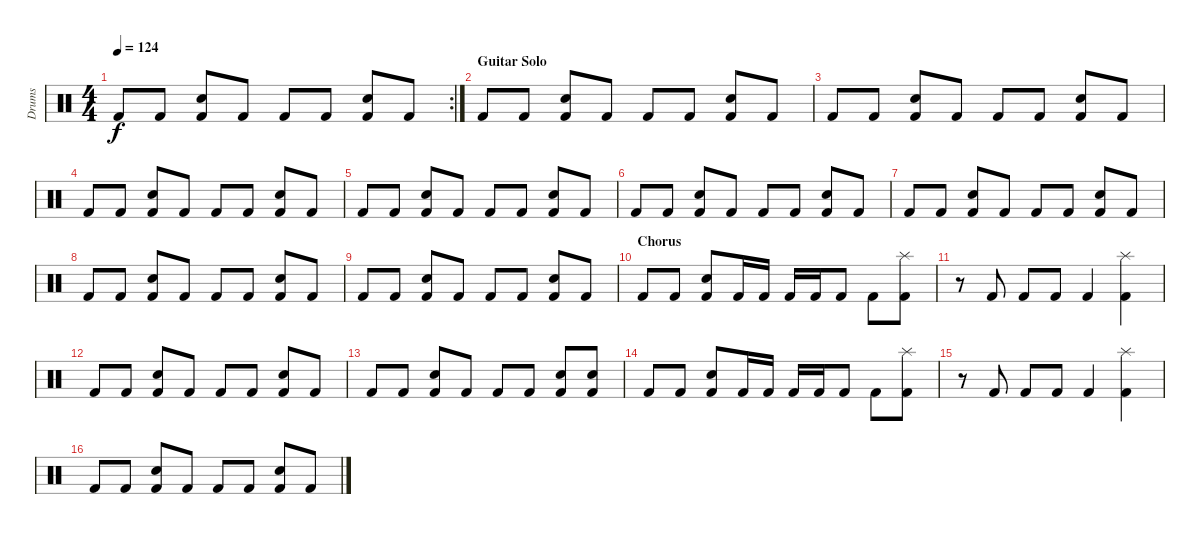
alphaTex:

\track ("Drums" "Drums") {instrument percussion}
\staff {score}
\articulation defaults
\rc 2
\ts (4 4)
\tempo 124
\clef neutral
\ks c "Kick (hit) 2".8{dy f} "Kick (hit) 2".8
("Kick (hit) 2" "Electric Snare (hit)").8 "Kick (hit) 2".8 "Kick (hit) 2".8 "Kick (hit) 2".8 ("Kick (hit) 2" "Electric Snare (hit)").8 "Kick (hit) 2".8 |
\section ("" "Guitar Solo")
"Kick (hit) 2".8 "Kick (hit) 2".8 ("Kick (hit) 2" "Electric Snare (hit)").8 "Kick (hit) 2".8 "Kick (hit) 2".8 "Kick (hit) 2".8 ("Kick (hit) 2" "Electric Snare (hit)").8 "Kick (hit) 2".8 |
"Kick (hit) 2".8 "Kick (hit) 2".8 ("Kick (hit) 2" "Electric Snare (hit)").8 "Kick (hit) 2".8 "Kick (hit) 2".8 "Kick (hit) 2".8 ("Kick (hit) 2" "Electric Snare (hit)").8 "Kick (hit) 2".8 |
"Kick (hit) 2".8 "Kick (hit) 2".8 ("Kick (hit) 2" "Electric Snare (hit)").8 "Kick (hit) 2".8 "Kick (hit) 2".8 "Kick (hit) 2".8 ("Kick (hit) 2" "Electric Snare (hit)").8 "Kick (hit) 2".8 |
"Kick (hit) 2".8 "Kick (hit) 2".8 ("Kick (hit) 2" "Electric Snare (hit)").8 "Kick (hit) 2".8 "Kick (hit) 2".8 "Kick (hit) 2".8 ("Kick (hit) 2" "Electric Snare (hit)").8 "Kick (hit) 2".8 |
"Kick (hit) 2".8 "Kick (hit) 2".8 ("Kick (hit) 2" "Electric Snare (hit)").8 "Kick (hit) 2".8 "Kick (hit) 2".8 "Kick (hit) 2".8 ("Kick (hit) 2" "Electric Snare (hit)").8 "Kick (hit) 2".8 |
"Kick (hit) 2".8 "Kick (hit) 2".8 ("Kick (hit) 2" "Electric Snare (hit)").8 "Kick (hit) 2".8 "Kick (hit) 2".8 "Kick (hit) 2".8 ("Kick (hit) 2" "Electric Snare (hit)").8 "Kick (hit) 2".8 |
"Kick (hit) 2".8 "Kick (hit) 2".8 ("Kick (hit) 2" "Electric Snare (hit)").8 "Kick (hit) 2".8 "Kick (hit) 2".8 "Kick (hit) 2".8 ("Kick (hit) 2" "Electric Snare (hit)").8 "Kick (hit) 2".8 |
"Kick (hit) 2".8 "Kick (hit) 2".8 ("Kick (hit) 2" "Electric Snare (hit)").8 "Kick (hit) 2".8 "Kick (hit) 2".8 "Kick (hit) 2".8 ("Kick (hit) 2" "Electric Snare (hit)").8 "Kick (hit) 2".8 |
\section ("" "Chorus")
"Kick (hit) 2".8 "Kick (hit) 2".8 ("Kick (hit) 2" "Electric Snare (hit)").8 "Kick (hit) 2".16 "Kick (hit) 2".16 "Kick (hit) 2".16 "Kick (hit) 2".16 "Kick (hit) 2".8 "Kick (hit) 2".8 ("Kick (hit) 2" "Splash (hit)").8 |
r.8 "Kick (hit) 2".8 "Kick (hit) 2".8 "Kick (hit) 2".8 "Kick (hit) 2".4 ("Kick (hit) 2" "Splash (hit)").4 |
"Kick (hit) 2".8 "Kick (hit) 2".8 ("Kick (hit) 2" "Electric Snare (hit)").8 "Kick (hit) 2".8 "Kick (hit) 2".8 "Kick (hit) 2".8 ("Kick (hit) 2" "Electric Snare (hit)").8 "Kick (hit) 2".8 |
"Kick (hit) 2".8 "Kick (hit) 2".8 ("Kick (hit) 2" "Electric Snare (hit)").8 "Kick (hit) 2".8 "Kick (hit) 2".8 "Kick (hit) 2".8 ("Kick (hit) 2" "Electric Snare (hit)").8 ("Kick (hit) 2" "Electric Snare (hit)").8 |
"Kick (hit) 2".8 "Kick (hit) 2".8 ("Kick (hit) 2" "Electric Snare (hit)").8 "Kick (hit) 2".16 "Kick (hit) 2".16 "Kick (hit) 2".16 "Kick (hit) 2".16 "Kick (hit) 2".8 "Kick (hit) 2".8 ("Kick (hit) 2" "Splash (hit)").8 |
r.8 "Kick (hit) 2".8 "Kick (hit) 2".8 "Kick (hit) 2".8 "Kick (hit) 2".4 ("Kick (hit) 2" "Splash (hit)").4 |
"Kick (hit) 2".8 "Kick (hit) 2".8 ("Kick (hit) 2" "Electric Snare (hit)").8 "Kick (hit) 2".8 "Kick (hit) 2".8 "Kick (hit) 2".8 ("Kick (hit) 2" "Electric Snare (hit)").8 "Kick (hit) 2".8
